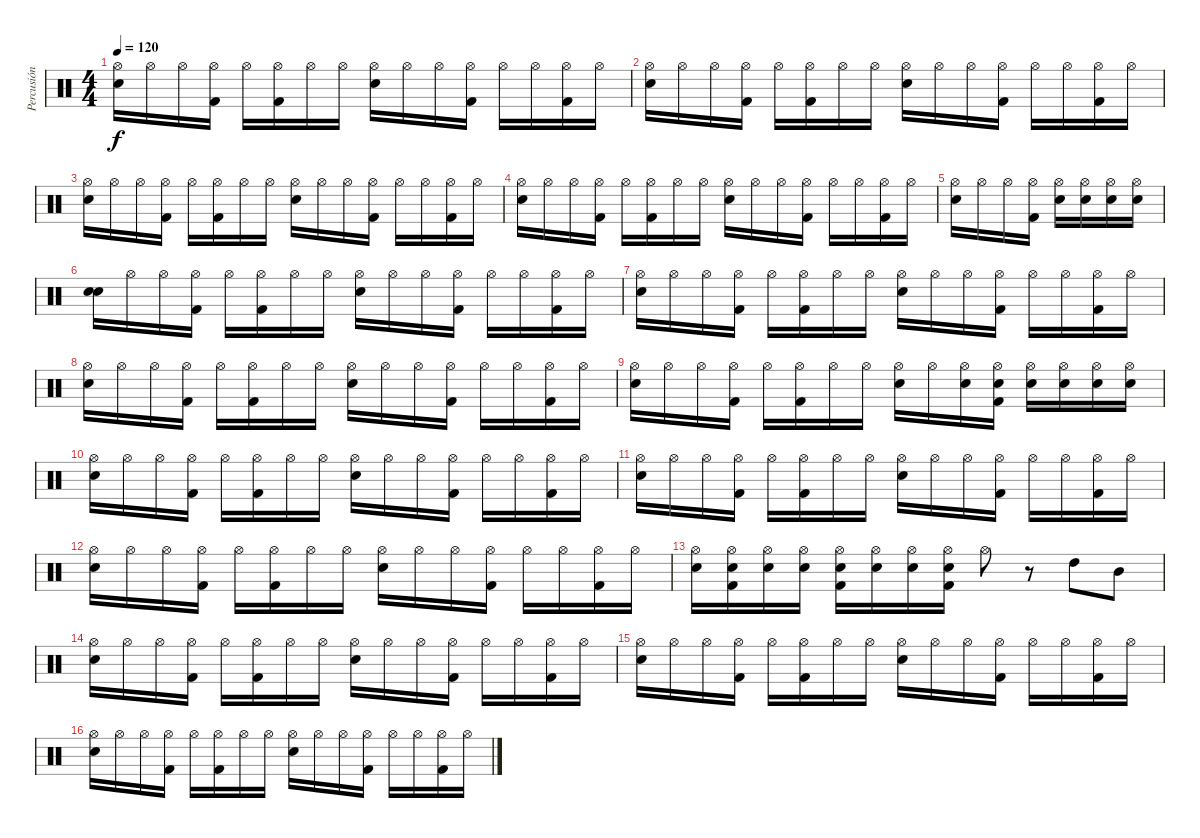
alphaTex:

\track ("Percusión" "Percusión") {instrument percussion}
\staff {score}
\articulation defaults
\ts (4 4)
\tempo 120
\clef neutral
\ks c
("Hi-Hat (open)" "Snare (hit) 2").16{dy f} "Hi-Hat (open)".16 "Hi-Hat (open)".16 ("Hi-Hat (open)" "Kick (hit) 2").16 "Hi-Hat (open)".16 ("Hi-Hat (open)" "Kick (hit) 2").16 "Hi-Hat (open)".16 "Hi-Hat (open)".16 ("Hi-Hat (open)" "Snare (hit) 2").16 "Hi-Hat (open)".16 "Hi-Hat (open)".16 ("Hi-Hat (open)" "Kick (hit) 2").16 "Hi-Hat (open)".16 "Hi-Hat (open)".16 ("Hi-Hat (open)" "Kick (hit) 2").16 "Hi-Hat (open)".16 |
("Hi-Hat (open)" "Snare (hit) 2").16 "Hi-Hat (open)".16 "Hi-Hat (open)".16 ("Hi-Hat (open)" "Kick (hit) 2").16 "Hi-Hat (open)".16 ("Hi-Hat (open)" "Kick (hit) 2").16 "Hi-Hat (open)".16 "Hi-Hat (open)".16 ("Hi-Hat (open)" "Snare (hit) 2").16 "Hi-Hat (open)".16 "Hi-Hat (open)".16 ("Hi-Hat (open)" "Kick (hit) 2").16 "Hi-Hat (open)".16 "Hi-Hat (open)".16 ("Hi-Hat (open)" "Kick (hit) 2").16 "Hi-Hat (open)".16 |
("Hi-Hat (open)" "Snare (hit) 2").16 "Hi-Hat (open)".16 "Hi-Hat (open)".16 ("Hi-Hat (open)" "Kick (hit) 2").16 "Hi-Hat (open)".16 ("Hi-Hat (open)" "Kick (hit) 2").16 "Hi-Hat (open)".16 "Hi-Hat (open)".16 ("Hi-Hat (open)" "Snare (hit) 2").16 "Hi-Hat (open)".16 "Hi-Hat (open)".16 ("Hi-Hat (open)" "Kick (hit) 2").16 "Hi-Hat (open)".16 "Hi-Hat (open)".16 ("Hi-Hat (open)" "Kick (hit) 2").16 "Hi-Hat (open)".16 |
("Hi-Hat (open)" "Snare (hit) 2").16 "Hi-Hat (open)".16 "Hi-Hat (open)".16 ("Hi-Hat (open)" "Kick (hit) 2").16 "Hi-Hat (open)".16 ("Hi-Hat (open)" "Kick (hit) 2").16 "Hi-Hat (open)".16 "Hi-Hat (open)".16 ("Hi-Hat (open)" "Snare (hit) 2").16 "Hi-Hat (open)".16 "Hi-Hat (open)".16 ("Hi-Hat (open)" "Kick (hit) 2").16 "Hi-Hat (open)".16 "Hi-Hat (open)".16 ("Hi-Hat (open)" "Kick (hit) 2").16 "Hi-Hat (open)".16 |
("Hi-Hat (open)" "Snare (hit) 2").16 "Hi-Hat (open)".16 "Hi-Hat (open)".16 ("Hi-Hat (open)" "Kick (hit) 2").16 ("Hi-Hat (open)" "Snare (hit) 2").16 ("Hi-Hat (open)" "Snare (hit) 2").16 ("Hi-Hat (open)" "Snare (hit) 2").16 ("Hi-Hat (open)" "Snare (hit) 2").16 |
("Snare (hit) 2" "Snare (hit) 2").16 "Hi-Hat (open)".16 "Hi-Hat (open)".16 ("Hi-Hat (open)" "Kick (hit) 2").16 "Hi-Hat (open)".16 ("Hi-Hat (open)" "Kick (hit) 2").16 "Hi-Hat (open)".16 "Hi-Hat (open)".16 ("Hi-Hat (open)" "Snare (hit) 2").16 "Hi-Hat (open)".16 "Hi-Hat (open)".16 ("Hi-Hat (open)" "Kick (hit) 2").16 "Hi-Hat (open)".16 "Hi-Hat (open)".16 ("Hi-Hat (open)" "Kick (hit) 2").16 "Hi-Hat (open)".16 |
("Hi-Hat (open)" "Snare (hit) 2").16 "Hi-Hat (open)".16 "Hi-Hat (open)".16 ("Hi-Hat (open)" "Kick (hit) 2").16 "Hi-Hat (open)".16 ("Hi-Hat (open)" "Kick (hit) 2").16 "Hi-Hat (open)".16 "Hi-Hat (open)".16 ("Hi-Hat (open)" "Snare (hit) 2").16 "Hi-Hat (open)".16 "Hi-Hat (open)".16 ("Hi-Hat (open)" "Kick (hit) 2").16 "Hi-Hat (open)".16 "Hi-Hat (open)".16 ("Hi-Hat (open)" "Kick (hit) 2").16 "Hi-Hat (open)".16 |
("Hi-Hat (open)" "Snare (hit) 2").16 "Hi-Hat (open)".16 "Hi-Hat (open)".16 ("Hi-Hat (open)" "Kick (hit) 2").16 "Hi-Hat (open)".16 ("Hi-Hat (open)" "Kick (hit) 2").16 "Hi-Hat (open)".16 "Hi-Hat (open)".16 ("Hi-Hat (open)" "Snare (hit) 2").16 "Hi-Hat (open)".16 "Hi-Hat (open)".16 ("Hi-Hat (open)" "Kick (hit) 2").16 "Hi-Hat (open)".16 "Hi-Hat (open)".16 ("Hi-Hat (open)" "Kick (hit) 2").16 "Hi-Hat (open)".16 |
("Hi-Hat (open)" "Snare (hit) 2").16 "Hi-Hat (open)".16 "Hi-Hat (open)".16 ("Hi-Hat (open)" "Kick (hit) 2").16 "Hi-Hat (open)".16 ("Hi-Hat (open)" "Kick (hit) 2").16 "Hi-Hat (open)".16 "Hi-Hat (open)".16 ("Hi-Hat (open)" "Snare (hit) 2").16 "Hi-Hat (open)".16 ("Hi-Hat (open)" "Snare (hit) 2").16 ("Hi-Hat (open)" "Snare (hit) 2" "Kick (hit) 2").16 ("Hi-Hat (open)" "Snare (hit) 2").16 ("Hi-Hat (open)" "Snare (hit) 2").16 ("Hi-Hat (open)" "Snare (hit) 2").16 ("Hi-Hat (open)" "Snare (hit) 2").16 |
("Hi-Hat (open)" "Snare (hit) 2").16 "Hi-Hat (open)".16 "Hi-Hat (open)".16 ("Hi-Hat (open)" "Kick (hit) 2").16 "Hi-Hat (open)".16 ("Hi-Hat (open)" "Kick (hit) 2").16 "Hi-Hat (open)".16 "Hi-Hat (open)".16 ("Hi-Hat (open)" "Snare (hit) 2").16 "Hi-Hat (open)".16 "Hi-Hat (open)".16 ("Hi-Hat (open)" "Kick (hit) 2").16 "Hi-Hat (open)".16 "Hi-Hat (open)".16 ("Hi-Hat (open)" "Kick (hit) 2").16 "Hi-Hat (open)".16 |
("Hi-Hat (open)" "Snare (hit) 2").16 "Hi-Hat (open)".16 "Hi-Hat (open)".16 ("Hi-Hat (open)" "Kick (hit) 2").16 "Hi-Hat (open)".16 ("Hi-Hat (open)" "Kick (hit) 2").16 "Hi-Hat (open)".16 "Hi-Hat (open)".16 ("Hi-Hat (open)" "Snare (hit) 2").16 "Hi-Hat (open)".16 "Hi-Hat (open)".16 ("Hi-Hat (open)" "Kick (hit) 2").16 "Hi-Hat (open)".16 "Hi-Hat (open)".16 ("Hi-Hat (open)" "Kick (hit) 2").16 "Hi-Hat (open)".16 |
("Hi-Hat (open)" "Snare (hit) 2").16 "Hi-Hat (open)".16 "Hi-Hat (open)".16 ("Hi-Hat (open)" "Kick (hit) 2").16 "Hi-Hat (open)".16 ("Hi-Hat (open)" "Kick (hit) 2").16 "Hi-Hat (open)".16 "Hi-Hat (open)".16 ("Hi-Hat (open)" "Snare (hit) 2").16 "Hi-Hat (open)".16 "Hi-Hat (open)".16 ("Hi-Hat (open)" "Kick (hit) 2").16 "Hi-Hat (open)".16 "Hi-Hat (open)".16 ("Hi-Hat (open)" "Kick (hit) 2").16 "Hi-Hat (open)".16 |
("Hi-Hat (open)" "Snare (hit) 2").16 ("Hi-Hat (open)" "Snare (hit) 2" "Kick (hit) 2").16 ("Hi-Hat (open)" "Snare (hit) 2").16 ("Hi-Hat (open)" "Snare (hit) 2").16 ("Hi-Hat (open)" "Snare (hit) 2" "Kick (hit) 2").16 ("Hi-Hat (open)" "Snare (hit) 2").16 ("Hi-Hat (open)" "Snare (hit) 2").16 ("Hi-Hat (open)" "Snare (hit) 2" "Kick (hit) 2").16 "Hi-Hat (open)".8 r.8 "High Tom (hit)".8 "Mid Tom (hit)".8 |
("Hi-Hat (open)" "Snare (hit) 2").16 "Hi-Hat (open)".16 "Hi-Hat (open)".16 ("Hi-Hat (open)" "Kick (hit) 2").16 "Hi-Hat (open)".16 ("Hi-Hat (open)" "Kick (hit) 2").16 "Hi-Hat (open)".16 "Hi-Hat (open)".16 ("Hi-Hat (open)" "Snare (hit) 2").16 "Hi-Hat (open)".16 "Hi-Hat (open)".16 ("Hi-Hat (open)" "Kick (hit) 2").16 "Hi-Hat (open)".16 "Hi-Hat (open)".16 ("Hi-Hat (open)" "Kick (hit) 2").16 "Hi-Hat (open)".16 |
("Hi-Hat (open)" "Snare (hit) 2").16 "Hi-Hat (open)".16 "Hi-Hat (open)".16 ("Hi-Hat (open)" "Kick (hit) 2").16 "Hi-Hat (open)".16 ("Hi-Hat (open)" "Kick (hit) 2").16 "Hi-Hat (open)".16 "Hi-Hat (open)".16 ("Hi-Hat (open)" "Snare (hit) 2").16 "Hi-Hat (open)".16 "Hi-Hat (open)".16 ("Hi-Hat (open)" "Kick (hit) 2").16 "Hi-Hat (open)".16 "Hi-Hat (open)".16 ("Hi-Hat (open)" "Kick (hit) 2").16 "Hi-Hat (open)".16 |
("Hi-Hat (open)" "Snare (hit) 2").16 "Hi-Hat (open)".16 "Hi-Hat (open)".16 ("Hi-Hat (open)" "Kick (hit) 2").16 "Hi-Hat (open)".16 ("Hi-Hat (open)" "Kick (hit) 2").16 "Hi-Hat (open)".16 "Hi-Hat (open)".16 ("Hi-Hat (open)" "Snare (hit) 2").16 "Hi-Hat (open)".16 "Hi-Hat (open)".16 ("Hi-Hat (open)" "Kick (hit) 2").16 "Hi-Hat (open)".16 "Hi-Hat (open)".16 ("Hi-Hat (open)" "Kick (hit) 2").16 "Hi-Hat (open)".16
